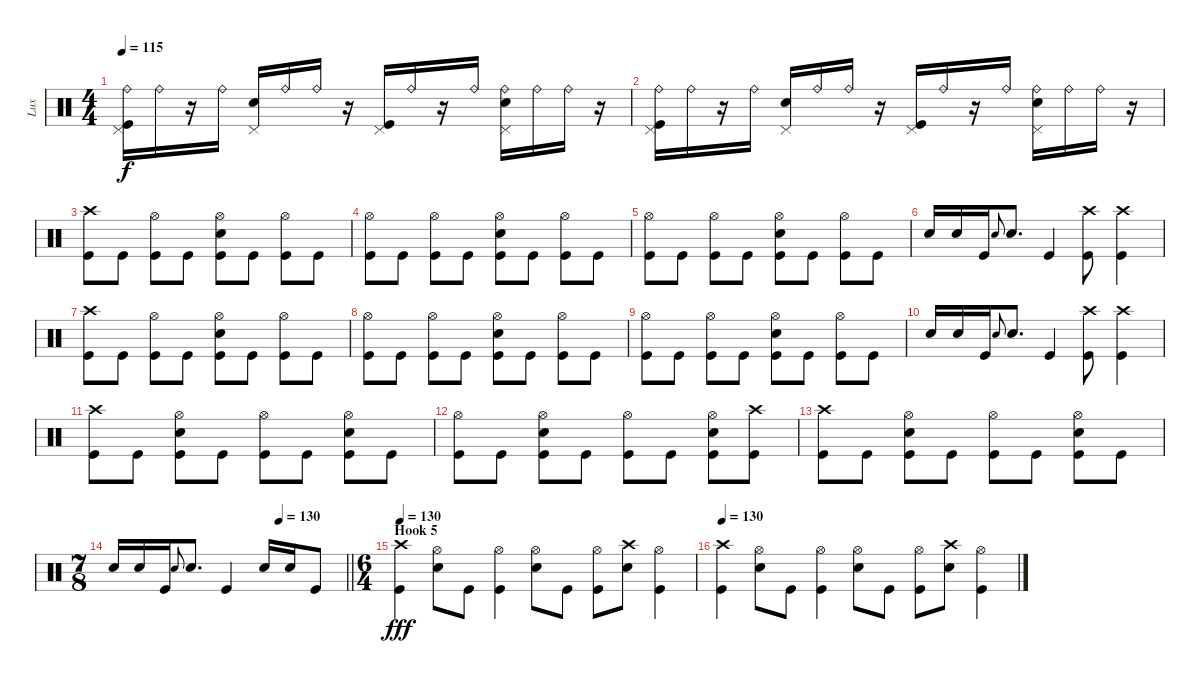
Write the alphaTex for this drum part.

\track ("Lux" "Lux") {instrument percussion}
\staff {score}
\articulation defaults
\ts (4 4)
\tempo 115
\clef neutral
\ks c
("Ride (bell)" "Pedal Hi-Hat (hit)" "Kick (hit)").16{dy f} "Ride (bell)".16 r.16 "Ride (bell)".16 ("Pedal Hi-Hat (hit)" "Snare (hit) 2").16 "Ride (bell)".16 "Ride (bell)".16 r.16 ("Pedal Hi-Hat (hit)" "Kick (hit)").16 "Ride (bell)".16 r.16 "Ride (bell)".16 ("Ride (bell)" "Pedal Hi-Hat (hit)" "Snare (hit) 2").16 "Ride (bell)".16 "Ride (bell)".16 r.16 |
("Ride (bell)" "Pedal Hi-Hat (hit)" "Kick (hit)").16 "Ride (bell)".16 r.16 "Ride (bell)".16 ("Pedal Hi-Hat (hit)" "Snare (hit) 2").16 "Ride (bell)".16 "Ride (bell)".16 r.16 ("Pedal Hi-Hat (hit)" "Kick (hit)").16 "Ride (bell)".16 r.16 "Ride (bell)".16 ("Ride (bell)" "Pedal Hi-Hat (hit)" "Snare (hit) 2").16 "Ride (bell)".16 "Ride (bell)".16 r.16 |
("Crash high (hit)" "Kick (hit)").8 "Kick (hit)".8 ("Hi-Hat (open)" "Kick (hit)").8 "Kick (hit)".8 ("Hi-Hat (open)" "Snare (hit) 2" "Kick (hit)").8 "Kick (hit)".8 ("Hi-Hat (open)" "Kick (hit)").8 "Kick (hit)".8 |
("Hi-Hat (open)" "Kick (hit)").8 "Kick (hit)".8 ("Hi-Hat (open)" "Kick (hit)").8 "Kick (hit)".8 ("Hi-Hat (open)" "Snare (hit) 2" "Kick (hit)").8 "Kick (hit)".8 ("Hi-Hat (open)" "Kick (hit)").8 "Kick (hit)".8 |
("Hi-Hat (open)" "Kick (hit)").8 "Kick (hit)".8 ("Hi-Hat (open)" "Kick (hit)").8 "Kick (hit)".8 ("Hi-Hat (open)" "Snare (hit) 2" "Kick (hit)").8 "Kick (hit)".8 ("Hi-Hat (open)" "Kick (hit)").8 "Kick (hit)".8 |
"Snare (hit) 2".16 "Snare (hit) 2".16 "Kick (hit)".16 "Snare (hit) 2".8{gr onbeat} "Snare (hit) 2".8{d} "Kick (hit)".4 ("Crash high (hit)" "Kick (hit)").8 ("Crash high (hit)" "Kick (hit)").4 |
("Crash high (hit)" "Kick (hit)").8 "Kick (hit)".8 ("Hi-Hat (open)" "Kick (hit)").8 "Kick (hit)".8 ("Hi-Hat (open)" "Snare (hit) 2" "Kick (hit)").8 "Kick (hit)".8 ("Hi-Hat (open)" "Kick (hit)").8 "Kick (hit)".8 |
("Hi-Hat (open)" "Kick (hit)").8 "Kick (hit)".8 ("Hi-Hat (open)" "Kick (hit)").8 "Kick (hit)".8 ("Hi-Hat (open)" "Snare (hit) 2" "Kick (hit)").8 "Kick (hit)".8 ("Hi-Hat (open)" "Kick (hit)").8 "Kick (hit)".8 |
("Hi-Hat (open)" "Kick (hit)").8 "Kick (hit)".8 ("Hi-Hat (open)" "Kick (hit)").8 "Kick (hit)".8 ("Hi-Hat (open)" "Snare (hit) 2" "Kick (hit)").8 "Kick (hit)".8 ("Hi-Hat (open)" "Kick (hit)").8 "Kick (hit)".8 |
"Snare (hit) 2".16 "Snare (hit) 2".16 "Kick (hit)".16 "Snare (hit) 2".8{gr onbeat} "Snare (hit) 2".8{d} "Kick (hit)".4 ("Crash high (hit)" "Kick (hit)").8 ("Crash high (hit)" "Kick (hit)").4 |
("Crash high (hit)" "Kick (hit)").8 "Kick (hit)".8 ("Hi-Hat (open)" "Snare (hit) 2" "Kick (hit)").8 "Kick (hit)".8 ("Hi-Hat (open)" "Kick (hit)").8 "Kick (hit)".8 ("Hi-Hat (open)" "Snare (hit) 2" "Kick (hit)").8 "Kick (hit)".8 |
("Hi-Hat (open)" "Kick (hit)").8 "Kick (hit)".8 ("Hi-Hat (open)" "Snare (hit) 2" "Kick (hit)").8 "Kick (hit)".8 ("Hi-Hat (open)" "Kick (hit)").8 "Kick (hit)".8 ("Hi-Hat (open)" "Snare (hit) 2" "Kick (hit)").8 ("Crash high (hit)" "Kick (hit)").8 |
("Crash high (hit)" "Kick (hit)").8 "Kick (hit)".8 ("Hi-Hat (open)" "Snare (hit) 2" "Kick (hit)").8 "Kick (hit)".8 ("Hi-Hat (open)" "Kick (hit)").8 "Kick (hit)".8 ("Hi-Hat (open)" "Snare (hit) 2" "Kick (hit)").8 "Kick (hit)".8 |
\ts (7 8)
\tempo (130 0.7142857142857143)
\barLineRight lightlight "Snare (hit) 2".16 "Snare (hit) 2".16 "Kick (hit)".16 "Snare (hit) 2".8{gr onbeat} "Snare (hit) 2".8{d} "Kick (hit)".4 "Snare (hit) 2".16 "Snare (hit) 2".16 "Kick (hit)".8
|
\ts (6 4)
\section ("" "Hook 5")
\tempo 130
("Crash high (hit)" "Kick (hit)").4{dy fff} ("Hi-Hat (open)" "Snare (hit) 2").8 "Kick (hit)".8 ("Hi-Hat (open)" "Kick (hit)").4 ("Hi-Hat (open)" "Snare (hit) 2").8 "Kick (hit)".8 ("Hi-Hat (open)" "Kick (hit)").8 ("Crash high (hit)" "Snare (hit) 2").8 ("Hi-Hat (open)" "Kick (hit)").4 |
\tempo 130
("Crash high (hit)" "Kick (hit)").4 ("Hi-Hat (open)" "Snare (hit) 2").8 "Kick (hit)".8 ("Hi-Hat (open)" "Kick (hit)").4 ("Hi-Hat (open)" "Snare (hit) 2").8 "Kick (hit)".8 ("Hi-Hat (open)" "Kick (hit)").8 ("Crash high (hit)" "Snare (hit) 2").8 ("Hi-Hat (open)" "Kick (hit)").4
